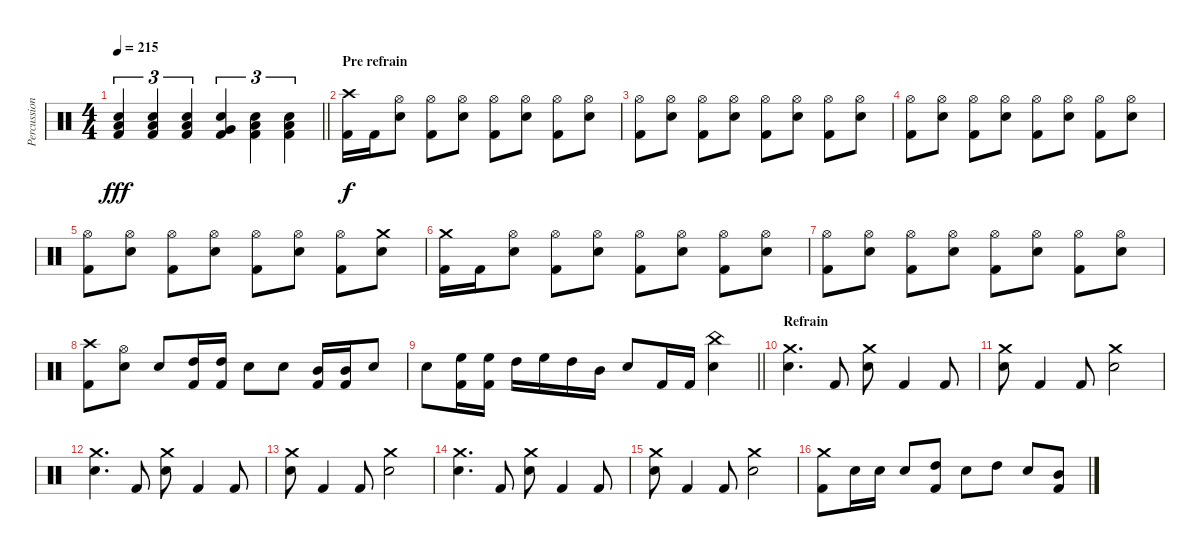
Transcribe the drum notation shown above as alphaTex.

\track ("Percussions" "Percussion") {instrument percussion}
\staff {score}
\articulation defaults
\ts (4 4)
\tempo 215
\clef neutral
\barLineRight lightlight
\ks c
("Electric Snare (hit)" "Low Tom (hit)" "Kick (hit) 2").4{tu (3 2) dy fff} ("Electric Snare (hit)" "Low Tom (hit)" "Kick (hit) 2").4{tu (3 2)} ("Electric Snare (hit)" "Low Tom (hit)" "Kick (hit) 2").4{tu (3 2)} ("Electric Snare (hit)" "Very Low Tom (hit)" "Kick (hit) 2").4{tu (3 2)} ("Electric Snare (hit)" "Low Floor Tom (hit)" "Kick (hit) 2").4{tu (3 2)} ("Electric Snare (hit)" "Low Floor Tom (hit)" "Kick (hit) 2").4{tu (3 2)} |
\section ("" "Pre refrain")
("Crash high (hit)" "Kick (hit) 2").16{dy f} "Kick (hit) 2".16 ("Hi-Hat (open)" "Electric Snare (hit)").8 ("Hi-Hat (open)" "Kick (hit) 2").8 ("Hi-Hat (open)" "Electric Snare (hit)").8 ("Hi-Hat (open)" "Kick (hit) 2").8 ("Hi-Hat (open)" "Electric Snare (hit)").8 ("Hi-Hat (open)" "Kick (hit) 2").8 ("Hi-Hat (open)" "Electric Snare (hit)").8 |
("Hi-Hat (open)" "Kick (hit) 2").8 ("Hi-Hat (open)" "Electric Snare (hit)").8 ("Hi-Hat (open)" "Kick (hit) 2").8 ("Hi-Hat (open)" "Electric Snare (hit)").8 ("Hi-Hat (open)" "Kick (hit) 2").8 ("Hi-Hat (open)" "Electric Snare (hit)").8 ("Hi-Hat (open)" "Kick (hit) 2").8 ("Hi-Hat (open)" "Electric Snare (hit)").8 |
("Hi-Hat (open)" "Kick (hit) 2").8 ("Hi-Hat (open)" "Electric Snare (hit)").8 ("Hi-Hat (open)" "Kick (hit) 2").8 ("Hi-Hat (open)" "Electric Snare (hit)").8 ("Hi-Hat (open)" "Kick (hit) 2").8 ("Hi-Hat (open)" "Electric Snare (hit)").8 ("Hi-Hat (open)" "Kick (hit) 2").8 ("Hi-Hat (open)" "Electric Snare (hit)").8 |
("Hi-Hat (open)" "Kick (hit) 2").8 ("Hi-Hat (open)" "Electric Snare (hit)").8 ("Hi-Hat (open)" "Kick (hit) 2").8 ("Hi-Hat (open)" "Electric Snare (hit)").8 ("Hi-Hat (open)" "Kick (hit) 2").8 ("Hi-Hat (open)" "Electric Snare (hit)").8 ("Hi-Hat (open)" "Kick (hit) 2").8 ("Crash medium (hit)" "Electric Snare (hit)").8 |
("Crash medium (hit)" "Kick (hit) 2").16 "Kick (hit) 2".16 ("Hi-Hat (open)" "Electric Snare (hit)").8 ("Hi-Hat (open)" "Kick (hit) 2").8 ("Hi-Hat (open)" "Electric Snare (hit)").8 ("Hi-Hat (open)" "Kick (hit) 2").8 ("Hi-Hat (open)" "Electric Snare (hit)").8 ("Hi-Hat (open)" "Kick (hit) 2").8 ("Hi-Hat (open)" "Electric Snare (hit)").8 |
("Hi-Hat (open)" "Kick (hit) 2").8 ("Hi-Hat (open)" "Electric Snare (hit)").8 ("Hi-Hat (open)" "Kick (hit) 2").8 ("Hi-Hat (open)" "Electric Snare (hit)").8 ("Hi-Hat (open)" "Kick (hit) 2").8 ("Hi-Hat (open)" "Electric Snare (hit)").8 ("Hi-Hat (open)" "Kick (hit) 2").8 ("Hi-Hat (open)" "Electric Snare (hit)").8 |
("Crash high (hit)" "Kick (hit) 2").8 ("Hi-Hat (open)" "Electric Snare (hit)").8 "Electric Snare (hit)".8 ("High Tom (hit)" "Kick (hit) 2").16 ("High Tom (hit)" "Kick (hit) 2").16 "Electric Snare (hit)".8 "Electric Snare (hit)".8 ("Mid Tom (hit)" "Kick (hit) 2").16 ("Mid Tom (hit)" "Kick (hit) 2").16 "Electric Snare (hit)".8 |
\barLineRight lightlight "Electric Snare (hit)".8
("High Floor Tom (hit)" "Kick (hit) 2").16 ("High Floor Tom (hit)" "Kick (hit) 2").16 "High Tom (hit)".16 "High Floor Tom (hit)".16 "High Tom (hit)".16 "Mid Tom (hit)".16 "Electric Snare (hit)".8 "Kick (hit) 2".16 "Kick (hit) 2".16 ("China (hit)" "Electric Snare (hit)").4 |
\section ("" "Refrain")
("Crash medium (hit)" "Electric Snare (hit)").4{d} "Kick (hit) 2".8 ("Crash medium (hit)" "Electric Snare (hit)").8 "Kick (hit) 2".4 "Kick (hit) 2".8 |
("Crash medium (hit)" "Electric Snare (hit)").8 "Kick (hit) 2".4 "Kick (hit) 2".8 ("Crash medium (hit)" "Electric Snare (hit)").2 |
("Crash medium (hit)" "Electric Snare (hit)").4{d} "Kick (hit) 2".8 ("Crash medium (hit)" "Electric Snare (hit)").8 "Kick (hit) 2".4 "Kick (hit) 2".8 |
("Crash medium (hit)" "Electric Snare (hit)").8 "Kick (hit) 2".4 "Kick (hit) 2".8 ("Crash medium (hit)" "Electric Snare (hit)").2 |
("Crash medium (hit)" "Electric Snare (hit)").4{d} "Kick (hit) 2".8 ("Crash medium (hit)" "Electric Snare (hit)").8 "Kick (hit) 2".4 "Kick (hit) 2".8 |
("Crash medium (hit)" "Electric Snare (hit)").8 "Kick (hit) 2".4 "Kick (hit) 2".8 ("Crash medium (hit)" "Electric Snare (hit)").2 |
("Crash medium (hit)" "Kick (hit) 2").8 "Electric Snare (hit)".16 "Electric Snare (hit)".16 "Electric Snare (hit)".8 ("High Tom (hit)" "Kick (hit) 2").8 "Electric Snare (hit)".8 "High Tom (hit)".8 "Electric Snare (hit)".8 ("Mid Tom (hit)" "Kick (hit) 2").8
